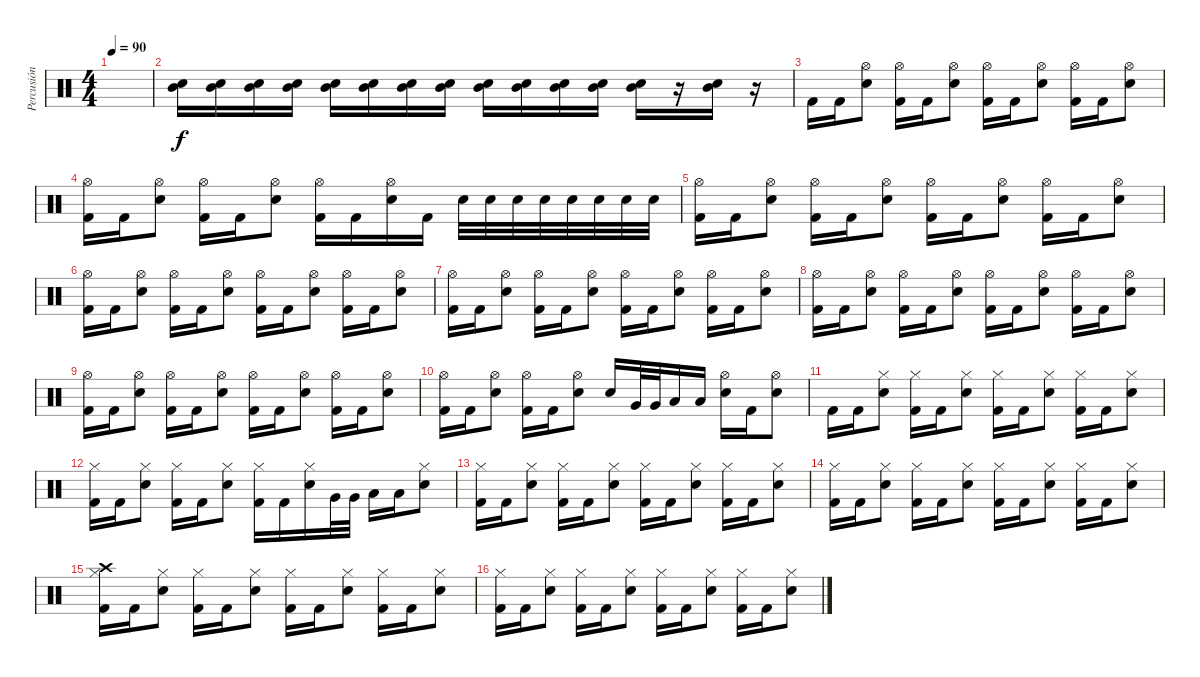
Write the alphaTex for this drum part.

\track ("Percusión" "Percusión") {instrument percussion}
\staff {score}
\articulation defaults
\ts (4 4)
\tempo 90
\clef neutral
\ks c
|
("Mid Tom (hit)" "Snare (hit) 2").16{volume 10} ("Mid Tom (hit)" "Snare (hit) 2").16 ("Mid Tom (hit)" "Snare (hit) 2").16 ("Mid Tom (hit)" "Snare (hit) 2").16 ("Mid Tom (hit)" "Snare (hit) 2").16 ("Mid Tom (hit)" "Snare (hit) 2").16 ("Mid Tom (hit)" "Snare (hit) 2").16 ("Mid Tom (hit)" "Snare (hit) 2").16 ("Mid Tom (hit)" "Snare (hit) 2").16 ("Mid Tom (hit)" "Snare (hit) 2").16 ("Mid Tom (hit)" "Snare (hit) 2").16 ("Mid Tom (hit)" "Snare (hit) 2").16 ("Mid Tom (hit)" "Snare (hit) 2").16 r.16 ("Mid Tom (hit)" "Snare (hit) 2").16{volume 12} r.16 |
"Kick (hit) 2".16 "Kick (hit) 2".16 ("Hi-Hat (open)" "Snare (hit) 2").8 ("Hi-Hat (open)" "Kick (hit) 2").16 "Kick (hit) 2".16 ("Hi-Hat (open)" "Snare (hit) 2").8 ("Hi-Hat (open)" "Kick (hit) 2").16 "Kick (hit) 2".16 ("Hi-Hat (open)" "Snare (hit) 2").8 ("Hi-Hat (open)" "Kick (hit) 2").16 "Kick (hit) 2".16 ("Hi-Hat (open)" "Snare (hit) 2").8 |
("Hi-Hat (open)" "Kick (hit) 2").16 "Kick (hit) 2".16 ("Hi-Hat (open)" "Snare (hit) 2").8 ("Hi-Hat (open)" "Kick (hit) 2").16 "Kick (hit) 2".16 ("Hi-Hat (open)" "Snare (hit) 2").8 ("Hi-Hat (open)" "Kick (hit) 2").16 "Kick (hit) 2".16 ("Hi-Hat (open)" "Snare (hit) 2").16 "Kick (hit) 2".16 "Snare (hit) 2".32 "Snare (hit) 2".32 "Snare (hit) 2".32 "Snare (hit) 2".32 "Snare (hit) 2".32 "Snare (hit) 2".32 "Snare (hit) 2".32 "Snare (hit) 2".32 |
("Hi-Hat (open)" "Kick (hit) 2").16 "Kick (hit) 2".16 ("Hi-Hat (open)" "Snare (hit) 2").8 ("Hi-Hat (open)" "Kick (hit) 2").16 "Kick (hit) 2".16 ("Hi-Hat (open)" "Snare (hit) 2").8 ("Hi-Hat (open)" "Kick (hit) 2").16 "Kick (hit) 2".16 ("Hi-Hat (open)" "Snare (hit) 2").8 ("Hi-Hat (open)" "Kick (hit) 2").16 "Kick (hit) 2".16 ("Hi-Hat (open)" "Snare (hit) 2").8 |
("Hi-Hat (open)" "Kick (hit) 2").16 "Kick (hit) 2".16 ("Hi-Hat (open)" "Snare (hit) 2").8 ("Hi-Hat (open)" "Kick (hit) 2").16 "Kick (hit) 2".16 ("Hi-Hat (open)" "Snare (hit) 2").8 ("Hi-Hat (open)" "Kick (hit) 2").16 "Kick (hit) 2".16 ("Hi-Hat (open)" "Snare (hit) 2").8 ("Hi-Hat (open)" "Kick (hit) 2").16 "Kick (hit) 2".16 ("Hi-Hat (open)" "Snare (hit) 2").8 |
("Hi-Hat (open)" "Kick (hit) 2").16 "Kick (hit) 2".16 ("Hi-Hat (open)" "Snare (hit) 2").8 ("Hi-Hat (open)" "Kick (hit) 2").16 "Kick (hit) 2".16 ("Hi-Hat (open)" "Snare (hit) 2").8 ("Hi-Hat (open)" "Kick (hit) 2").16 "Kick (hit) 2".16 ("Hi-Hat (open)" "Snare (hit) 2").8 ("Hi-Hat (open)" "Kick (hit) 2").16 "Kick (hit) 2".16 ("Hi-Hat (open)" "Snare (hit) 2").8 |
("Hi-Hat (open)" "Kick (hit) 2").16 "Kick (hit) 2".16 ("Hi-Hat (open)" "Snare (hit) 2").8 ("Hi-Hat (open)" "Kick (hit) 2").16 "Kick (hit) 2".16 ("Hi-Hat (open)" "Snare (hit) 2").8 ("Hi-Hat (open)" "Kick (hit) 2").16 "Kick (hit) 2".16 ("Hi-Hat (open)" "Snare (hit) 2").8 ("Hi-Hat (open)" "Kick (hit) 2").16 "Kick (hit) 2".16 ("Hi-Hat (open)" "Snare (hit) 2").8 |
("Hi-Hat (open)" "Kick (hit) 2").16 "Kick (hit) 2".16 ("Hi-Hat (open)" "Snare (hit) 2").8 ("Hi-Hat (open)" "Kick (hit) 2").16 "Kick (hit) 2".16 ("Hi-Hat (open)" "Snare (hit) 2").8 ("Hi-Hat (open)" "Kick (hit) 2").16 "Kick (hit) 2".16 ("Hi-Hat (open)" "Snare (hit) 2").8 ("Hi-Hat (open)" "Kick (hit) 2").16 "Kick (hit) 2".16 ("Hi-Hat (open)" "Snare (hit) 2").8 |
("Hi-Hat (open)" "Kick (hit) 2").16 "Kick (hit) 2".16 ("Hi-Hat (open)" "Snare (hit) 2").8 ("Hi-Hat (open)" "Kick (hit) 2").16 "Kick (hit) 2".16 ("Hi-Hat (open)" "Snare (hit) 2").8 "Snare (hit) 2".16 "Very Low Tom (hit)".32 "Very Low Tom (hit)".32 "Low Tom (hit)".16 "Low Tom (hit)".16 ("Hi-Hat (open)" "Snare (hit) 2").16 "Kick (hit) 2".16 ("Hi-Hat (open)" "Snare (hit) 2").8 |
"Kick (hit) 2".16 "Kick (hit) 2".16 ("Hi-Hat (closed)" "Snare (hit) 2").8 ("Hi-Hat (closed)" "Kick (hit) 2").16 "Kick (hit) 2".16 ("Hi-Hat (closed)" "Snare (hit) 2").8 ("Hi-Hat (closed)" "Kick (hit) 2").16 "Kick (hit) 2".16 ("Hi-Hat (closed)" "Snare (hit) 2").8 ("Hi-Hat (closed)" "Kick (hit) 2").16 "Kick (hit) 2".16 ("Hi-Hat (closed)" "Snare (hit) 2").8 |
("Hi-Hat (closed)" "Kick (hit) 2").16 "Kick (hit) 2".16 ("Hi-Hat (closed)" "Snare (hit) 2").8 ("Hi-Hat (closed)" "Kick (hit) 2").16 "Kick (hit) 2".16 ("Hi-Hat (closed)" "Snare (hit) 2").8 ("Hi-Hat (closed)" "Kick (hit) 2").16 "Kick (hit) 2".16 ("Hi-Hat (closed)" "Snare (hit) 2").16 "Very Low Tom (hit)".32 "Very Low Tom (hit)".32 "Low Tom (hit)".16 "Low Tom (hit)".16 ("Hi-Hat (closed)" "Snare (hit) 2").8 |
("Hi-Hat (closed)" "Kick (hit) 2").16 "Kick (hit) 2".16 ("Hi-Hat (closed)" "Snare (hit) 2").8 ("Hi-Hat (closed)" "Kick (hit) 2").16 "Kick (hit) 2".16 ("Hi-Hat (closed)" "Snare (hit) 2").8 ("Hi-Hat (closed)" "Kick (hit) 2").16 "Kick (hit) 2".16 ("Hi-Hat (closed)" "Snare (hit) 2").8 ("Hi-Hat (closed)" "Kick (hit) 2").16 "Kick (hit) 2".16 ("Hi-Hat (closed)" "Snare (hit) 2").8 |
("Hi-Hat (closed)" "Kick (hit) 2").16 "Kick (hit) 2".16 ("Hi-Hat (closed)" "Snare (hit) 2").8 ("Hi-Hat (closed)" "Kick (hit) 2").16 "Kick (hit) 2".16 ("Hi-Hat (closed)" "Snare (hit) 2").8 ("Hi-Hat (closed)" "Kick (hit) 2").16 "Kick (hit) 2".16 ("Hi-Hat (closed)" "Snare (hit) 2").8 ("Hi-Hat (closed)" "Kick (hit) 2").16 "Kick (hit) 2".16 ("Hi-Hat (closed)" "Snare (hit) 2").8 |
("Crash high (hit)" "Hi-Hat (closed)" "Kick (hit) 2").16 "Kick (hit) 2".16 ("Hi-Hat (closed)" "Snare (hit) 2").8 ("Hi-Hat (closed)" "Kick (hit) 2").16 "Kick (hit) 2".16 ("Hi-Hat (closed)" "Snare (hit) 2").8 ("Hi-Hat (closed)" "Kick (hit) 2").16 "Kick (hit) 2".16 ("Hi-Hat (closed)" "Snare (hit) 2").8 ("Hi-Hat (closed)" "Kick (hit) 2").16 "Kick (hit) 2".16 ("Hi-Hat (closed)" "Snare (hit) 2").8 |
("Hi-Hat (closed)" "Kick (hit) 2").16 "Kick (hit) 2".16 ("Hi-Hat (closed)" "Snare (hit) 2").8 ("Hi-Hat (closed)" "Kick (hit) 2").16 "Kick (hit) 2".16 ("Hi-Hat (closed)" "Snare (hit) 2").8 ("Hi-Hat (closed)" "Kick (hit) 2").16 "Kick (hit) 2".16 ("Hi-Hat (closed)" "Snare (hit) 2").8 ("Hi-Hat (closed)" "Kick (hit) 2").16 "Kick (hit) 2".16 ("Hi-Hat (closed)" "Snare (hit) 2").8
